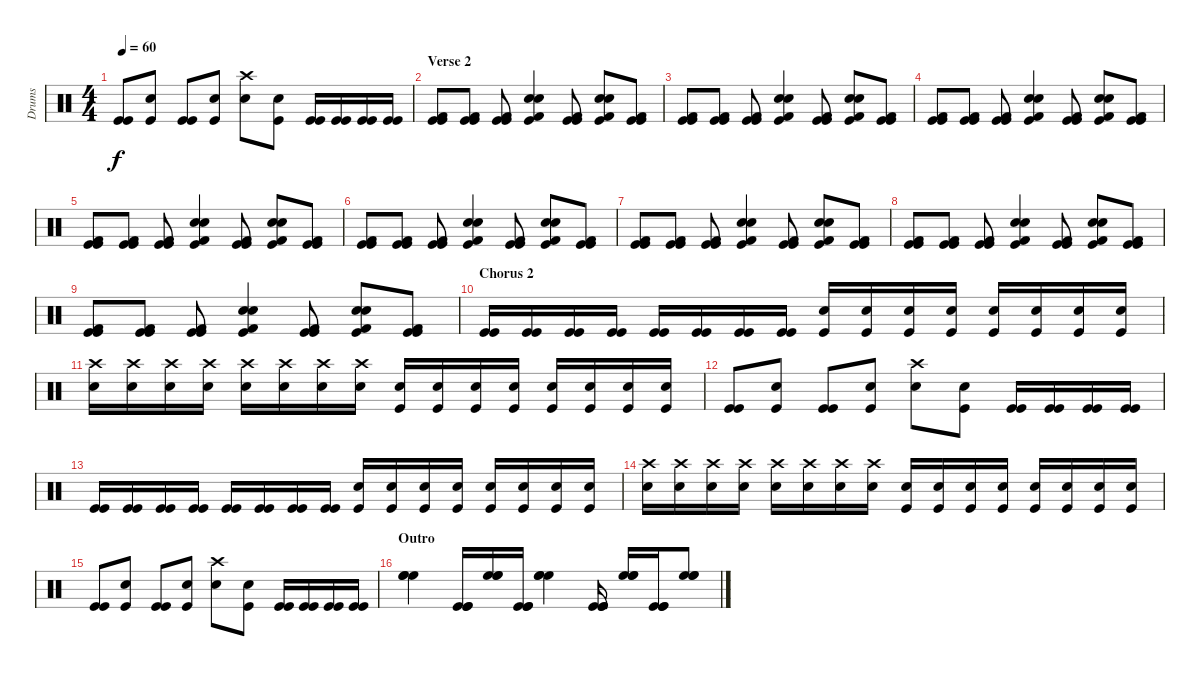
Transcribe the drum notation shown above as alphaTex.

\track ("Drums" "Drums") {instrument percussion}
\staff {score}
\articulation defaults
\ts (4 4)
\tempo 60
\clef neutral
\ks c
("Kick (hit)" "Kick (hit)").8{dy f} ("Kick (hit)" "Snare (hit) 2").8 ("Kick (hit)" "Kick (hit)").8 ("Kick (hit)" "Snare (hit) 2").8 ("Snare (hit) 2" "Crash high (hit)").8 ("Kick (hit)" "Snare (hit) 2").8 ("Kick (hit)" "Kick (hit)").16 ("Kick (hit)" "Kick (hit)").16 ("Kick (hit)" "Kick (hit)").16 ("Kick (hit)" "Kick (hit)").16 |
\section ("" "Verse 2")
("Kick (hit)" "Kick (hit)" "Kick (hit) 2").8 ("Kick (hit)" "Kick (hit)" "Kick (hit) 2").8 ("Kick (hit)" "Kick (hit)" "Kick (hit) 2").8 ("Kick (hit)" "Kick (hit) 2" "Snare (hit) 2" "Snare (hit) 2").4 ("Kick (hit)" "Kick (hit)" "Kick (hit) 2").8 ("Kick (hit)" "Kick (hit) 2" "Snare (hit) 2" "Snare (hit) 2").8 ("Kick (hit)" "Kick (hit)" "Kick (hit) 2").8 |
("Kick (hit)" "Kick (hit)" "Kick (hit) 2").8 ("Kick (hit)" "Kick (hit)" "Kick (hit) 2").8 ("Kick (hit)" "Kick (hit)" "Kick (hit) 2").8 ("Kick (hit)" "Kick (hit) 2" "Snare (hit) 2" "Snare (hit) 2").4 ("Kick (hit)" "Kick (hit)" "Kick (hit) 2").8 ("Kick (hit)" "Kick (hit) 2" "Snare (hit) 2" "Snare (hit) 2").8 ("Kick (hit)" "Kick (hit)" "Kick (hit) 2").8 |
("Kick (hit)" "Kick (hit)" "Kick (hit) 2").8 ("Kick (hit)" "Kick (hit)" "Kick (hit) 2").8 ("Kick (hit)" "Kick (hit)" "Kick (hit) 2").8 ("Kick (hit)" "Kick (hit) 2" "Snare (hit) 2" "Snare (hit) 2").4 ("Kick (hit)" "Kick (hit)" "Kick (hit) 2").8 ("Kick (hit)" "Kick (hit) 2" "Snare (hit) 2" "Snare (hit) 2").8 ("Kick (hit)" "Kick (hit)" "Kick (hit) 2").8 |
("Kick (hit)" "Kick (hit)" "Kick (hit) 2").8 ("Kick (hit)" "Kick (hit)" "Kick (hit) 2").8 ("Kick (hit)" "Kick (hit)" "Kick (hit) 2").8 ("Kick (hit)" "Kick (hit) 2" "Snare (hit) 2" "Snare (hit) 2").4 ("Kick (hit)" "Kick (hit)" "Kick (hit) 2").8 ("Kick (hit)" "Kick (hit) 2" "Snare (hit) 2" "Snare (hit) 2").8 ("Kick (hit)" "Kick (hit)" "Kick (hit) 2").8 |
("Kick (hit)" "Kick (hit)" "Kick (hit) 2").8 ("Kick (hit)" "Kick (hit)" "Kick (hit) 2").8 ("Kick (hit)" "Kick (hit)" "Kick (hit) 2").8 ("Kick (hit)" "Kick (hit) 2" "Snare (hit) 2" "Snare (hit) 2").4 ("Kick (hit)" "Kick (hit)" "Kick (hit) 2").8 ("Kick (hit)" "Kick (hit) 2" "Snare (hit) 2" "Snare (hit) 2").8 ("Kick (hit)" "Kick (hit)" "Kick (hit) 2").8 |
("Kick (hit)" "Kick (hit)" "Kick (hit) 2").8 ("Kick (hit)" "Kick (hit)" "Kick (hit) 2").8 ("Kick (hit)" "Kick (hit)" "Kick (hit) 2").8 ("Kick (hit)" "Kick (hit) 2" "Snare (hit) 2" "Snare (hit) 2").4 ("Kick (hit)" "Kick (hit)" "Kick (hit) 2").8 ("Kick (hit)" "Kick (hit) 2" "Snare (hit) 2" "Snare (hit) 2").8 ("Kick (hit)" "Kick (hit)" "Kick (hit) 2").8 |
("Kick (hit)" "Kick (hit)" "Kick (hit) 2").8 ("Kick (hit)" "Kick (hit)" "Kick (hit) 2").8 ("Kick (hit)" "Kick (hit)" "Kick (hit) 2").8 ("Kick (hit)" "Kick (hit) 2" "Snare (hit) 2" "Snare (hit) 2").4 ("Kick (hit)" "Kick (hit)" "Kick (hit) 2").8 ("Kick (hit)" "Kick (hit) 2" "Snare (hit) 2" "Snare (hit) 2").8 ("Kick (hit)" "Kick (hit)" "Kick (hit) 2").8 |
("Kick (hit)" "Kick (hit)" "Kick (hit) 2").8 ("Kick (hit)" "Kick (hit)" "Kick (hit) 2").8 ("Kick (hit)" "Kick (hit)" "Kick (hit) 2").8 ("Kick (hit)" "Kick (hit) 2" "Snare (hit) 2" "Snare (hit) 2").4 ("Kick (hit)" "Kick (hit)" "Kick (hit) 2").8 ("Kick (hit)" "Kick (hit) 2" "Snare (hit) 2" "Snare (hit) 2").8 ("Kick (hit)" "Kick (hit)" "Kick (hit) 2").8 |
\section ("" "Chorus 2")
("Kick (hit)" "Kick (hit)").16 ("Kick (hit)" "Kick (hit)").16 ("Kick (hit)" "Kick (hit)").16 ("Kick (hit)" "Kick (hit)").16 ("Kick (hit)" "Kick (hit)").16 ("Kick (hit)" "Kick (hit)").16 ("Kick (hit)" "Kick (hit)").16 ("Kick (hit)" "Kick (hit)").16 ("Kick (hit)" "Snare (hit) 2").16 ("Kick (hit)" "Snare (hit) 2").16 ("Kick (hit)" "Snare (hit) 2").16 ("Kick (hit)" "Snare (hit) 2").16 ("Kick (hit)" "Snare (hit) 2").16 ("Kick (hit)" "Snare (hit) 2").16 ("Kick (hit)" "Snare (hit) 2").16 ("Kick (hit)" "Snare (hit) 2").16 |
("Snare (hit) 2" "Crash high (hit)").16 ("Snare (hit) 2" "Crash high (hit)").16 ("Snare (hit) 2" "Crash high (hit)").16 ("Snare (hit) 2" "Crash high (hit)").16 ("Snare (hit) 2" "Crash high (hit)").16 ("Snare (hit) 2" "Crash high (hit)").16 ("Snare (hit) 2" "Crash high (hit)").16 ("Snare (hit) 2" "Crash high (hit)").16 ("Kick (hit)" "Snare (hit) 2").16 ("Kick (hit)" "Snare (hit) 2").16 ("Kick (hit)" "Snare (hit) 2").16 ("Kick (hit)" "Snare (hit) 2").16 ("Kick (hit)" "Snare (hit) 2").16 ("Kick (hit)" "Snare (hit) 2").16 ("Kick (hit)" "Snare (hit) 2").16 ("Kick (hit)" "Snare (hit) 2").16 |
("Kick (hit)" "Kick (hit)").8 ("Kick (hit)" "Snare (hit) 2").8 ("Kick (hit)" "Kick (hit)").8 ("Kick (hit)" "Snare (hit) 2").8 ("Snare (hit) 2" "Crash high (hit)").8 ("Kick (hit)" "Snare (hit) 2").8 ("Kick (hit)" "Kick (hit)").16 ("Kick (hit)" "Kick (hit)").16 ("Kick (hit)" "Kick (hit)").16 ("Kick (hit)" "Kick (hit)").16 |
("Kick (hit)" "Kick (hit)").16 ("Kick (hit)" "Kick (hit)").16 ("Kick (hit)" "Kick (hit)").16 ("Kick (hit)" "Kick (hit)").16 ("Kick (hit)" "Kick (hit)").16 ("Kick (hit)" "Kick (hit)").16 ("Kick (hit)" "Kick (hit)").16 ("Kick (hit)" "Kick (hit)").16 ("Kick (hit)" "Snare (hit) 2").16 ("Kick (hit)" "Snare (hit) 2").16 ("Kick (hit)" "Snare (hit) 2").16 ("Kick (hit)" "Snare (hit) 2").16 ("Kick (hit)" "Snare (hit) 2").16 ("Kick (hit)" "Snare (hit) 2").16 ("Kick (hit)" "Snare (hit) 2").16 ("Kick (hit)" "Snare (hit) 2").16 |
("Snare (hit) 2" "Crash high (hit)").16 ("Snare (hit) 2" "Crash high (hit)").16 ("Snare (hit) 2" "Crash high (hit)").16 ("Snare (hit) 2" "Crash high (hit)").16 ("Snare (hit) 2" "Crash high (hit)").16 ("Snare (hit) 2" "Crash high (hit)").16 ("Snare (hit) 2" "Crash high (hit)").16 ("Snare (hit) 2" "Crash high (hit)").16 ("Kick (hit)" "Snare (hit) 2").16 ("Kick (hit)" "Snare (hit) 2").16 ("Kick (hit)" "Snare (hit) 2").16 ("Kick (hit)" "Snare (hit) 2").16 ("Kick (hit)" "Snare (hit) 2").16 ("Kick (hit)" "Snare (hit) 2").16 ("Kick (hit)" "Snare (hit) 2").16 ("Kick (hit)" "Snare (hit) 2").16 |
("Kick (hit)" "Kick (hit)").8 ("Kick (hit)" "Snare (hit) 2").8 ("Kick (hit)" "Kick (hit)").8 ("Kick (hit)" "Snare (hit) 2").8 ("Snare (hit) 2" "Crash high (hit)").8 ("Kick (hit)" "Snare (hit) 2").8 ("Kick (hit)" "Kick (hit)").16 ("Kick (hit)" "Kick (hit)").16 ("Kick (hit)" "Kick (hit)").16 ("Kick (hit)" "Kick (hit)").16 |
\section ("" "Outro")
("High Floor Tom (hit)" "High Floor Tom (hit)" "High Floor Tom (hit)").4 ("Kick (hit)" "Kick (hit)" "Kick (hit)").16 ("High Floor Tom (hit)" "High Floor Tom (hit)" "High Floor Tom (hit)").16 ("Kick (hit)" "Kick (hit)" "Kick (hit)").16 ("High Floor Tom (hit)" "High Floor Tom (hit)" "High Floor Tom (hit)").4 ("Kick (hit)" "Kick (hit)" "Kick (hit)").16 ("High Floor Tom (hit)" "High Floor Tom (hit)" "High Floor Tom (hit)").16 ("Kick (hit)" "Kick (hit)" "Kick (hit)").16 ("High Floor Tom (hit)" "High Floor Tom (hit)" "High Floor Tom (hit)").8
